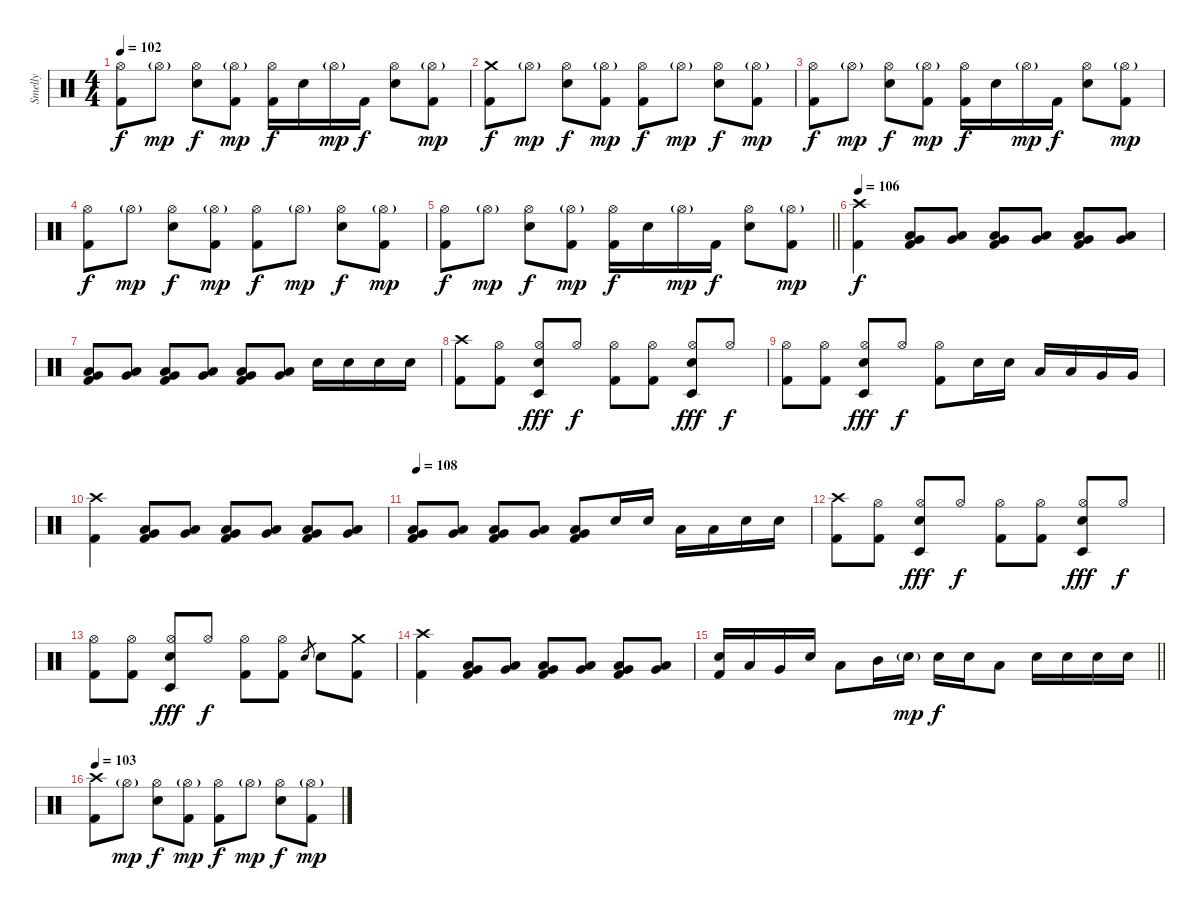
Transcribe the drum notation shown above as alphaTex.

\track ("Smelly" "Smelly") {instrument percussion}
\staff {score}
\articulation defaults
\ts (4 4)
\tempo 102
\clef neutral
\ks c
("Hi-Hat (open)" "Kick (hit) 2").8{dy f} "Hi-Hat (open)"{g}.8{dy mp} ("Hi-Hat (open)" "Electric Snare (hit)").8{dy f} ("Hi-Hat (open)"{g} "Kick (hit) 2").8{dy mp} ("Hi-Hat (open)" "Kick (hit) 2").16{dy f} "Electric Snare (hit)".16 "Hi-Hat (open)"{g}.16{dy mp} "Kick (hit) 2".16{dy f} ("Hi-Hat (open)" "Electric Snare (hit)").8 ("Hi-Hat (open)"{g} "Kick (hit) 2").8{dy mp} |
("Crash medium (hit)" "Kick (hit) 2").8{dy f} "Hi-Hat (open)"{g}.8{dy mp} ("Hi-Hat (open)" "Electric Snare (hit)").8{dy f} ("Hi-Hat (open)"{g} "Kick (hit) 2").8{dy mp} ("Hi-Hat (open)" "Kick (hit) 2").8{dy f} "Hi-Hat (open)"{g}.8{dy mp} ("Hi-Hat (open)" "Electric Snare (hit)").8{dy f} ("Hi-Hat (open)"{g} "Kick (hit) 2").8{dy mp} |
("Hi-Hat (open)" "Kick (hit) 2").8{dy f} "Hi-Hat (open)"{g}.8{dy mp} ("Hi-Hat (open)" "Electric Snare (hit)").8{dy f} ("Hi-Hat (open)"{g} "Kick (hit) 2").8{dy mp} ("Hi-Hat (open)" "Kick (hit) 2").16{dy f} "Electric Snare (hit)".16 "Hi-Hat (open)"{g}.16{dy mp} "Kick (hit) 2".16{dy f} ("Hi-Hat (open)" "Electric Snare (hit)").8 ("Hi-Hat (open)"{g} "Kick (hit) 2").8{dy mp} |
("Hi-Hat (open)" "Kick (hit) 2").8{dy f} "Hi-Hat (open)"{g}.8{dy mp} ("Hi-Hat (open)" "Electric Snare (hit)").8{dy f} ("Hi-Hat (open)"{g} "Kick (hit) 2").8{dy mp} ("Hi-Hat (open)" "Kick (hit) 2").8{dy f} "Hi-Hat (open)"{g}.8{dy mp} ("Hi-Hat (open)" "Electric Snare (hit)").8{dy f} ("Hi-Hat (open)"{g} "Kick (hit) 2").8{dy mp} |
\barLineRight lightlight
("Hi-Hat (open)" "Kick (hit) 2").8{dy f} "Hi-Hat (open)"{g}.8{dy mp} ("Hi-Hat (open)" "Electric Snare (hit)").8{dy f} ("Hi-Hat (open)"{g} "Kick (hit) 2").8{dy mp} ("Hi-Hat (open)" "Kick (hit) 2").16{dy f} "Electric Snare (hit)".16 "Hi-Hat (open)"{g}.16{dy mp} "Kick (hit) 2".16{dy f} ("Hi-Hat (open)" "Electric Snare (hit)").8 ("Hi-Hat (open)"{g} "Kick (hit) 2").8{dy mp} |
\section ("" "")
\tempo 106
("Crash high (hit)" "Kick (hit) 2").4{dy f} ("Very Low Tom (hit)" "Low Floor Tom (hit)" "Kick (hit) 2").8 ("Very Low Tom (hit)" "Low Floor Tom (hit)").8 ("Very Low Tom (hit)" "Low Floor Tom (hit)" "Kick (hit) 2").8 ("Very Low Tom (hit)" "Low Floor Tom (hit)").8 ("Very Low Tom (hit)" "Low Floor Tom (hit)" "Kick (hit) 2").8 ("Very Low Tom (hit)" "Low Floor Tom (hit)").8 |
("Very Low Tom (hit)" "Low Floor Tom (hit)" "Kick (hit) 2").8 ("Very Low Tom (hit)" "Low Floor Tom (hit)").8 ("Very Low Tom (hit)" "Low Floor Tom (hit)" "Kick (hit) 2").8 ("Very Low Tom (hit)" "Low Floor Tom (hit)").8 ("Very Low Tom (hit)" "Low Floor Tom (hit)" "Kick (hit) 2").8 ("Very Low Tom (hit)" "Low Floor Tom (hit)").8 "Electric Snare (hit)".16 "Electric Snare (hit)".16 "Electric Snare (hit)".16 "Electric Snare (hit)".16 |
("Crash high (hit)" "Kick (hit) 2").8 ("Hi-Hat (open)" "Kick (hit) 2").8 ("Hi-Hat (open)" "Electric Snare (hit)" "Timbale low (hit)").8{dy fff} "Hi-Hat (open)".8{dy f} ("Hi-Hat (open)" "Kick (hit) 2").8 ("Hi-Hat (open)" "Kick (hit) 2").8 ("Hi-Hat (open)" "Electric Snare (hit)" "Timbale low (hit)").8{dy fff} "Hi-Hat (open)".8{dy f} |
("Hi-Hat (open)" "Kick (hit) 2").8 ("Hi-Hat (open)" "Kick (hit) 2").8 ("Hi-Hat (open)" "Electric Snare (hit)" "Timbale low (hit)").8{dy fff} "Hi-Hat (open)".8{dy f} ("Hi-Hat (open)" "Kick (hit) 2").8 "Electric Snare (hit)".16 "Electric Snare (hit)".16 "Low Tom (hit)".16 "Low Tom (hit)".16 "Very Low Tom (hit)".16 "Very Low Tom (hit)".16 |
("Crash high (hit)" "Kick (hit) 2").4 ("Very Low Tom (hit)" "Low Floor Tom (hit)" "Kick (hit) 2").8 ("Very Low Tom (hit)" "Low Floor Tom (hit)").8 ("Very Low Tom (hit)" "Low Floor Tom (hit)" "Kick (hit) 2").8 ("Very Low Tom (hit)" "Low Floor Tom (hit)").8 ("Very Low Tom (hit)" "Low Floor Tom (hit)" "Kick (hit) 2").8 ("Very Low Tom (hit)" "Low Floor Tom (hit)").8 |
\tempo 108
("Very Low Tom (hit)" "Low Floor Tom (hit)" "Kick (hit) 2").8 ("Very Low Tom (hit)" "Low Floor Tom (hit)").8 ("Very Low Tom (hit)" "Low Floor Tom (hit)" "Kick (hit) 2").8 ("Very Low Tom (hit)" "Low Floor Tom (hit)").8 ("Very Low Tom (hit)" "Low Floor Tom (hit)" "Kick (hit) 2").8 "Electric Snare (hit)".16 "Electric Snare (hit)".16 "Low Tom (hit)".16 "Low Tom (hit)".16 "Electric Snare (hit)".16 "Electric Snare (hit)".16 |
("Crash high (hit)" "Kick (hit) 2").8 ("Hi-Hat (open)" "Kick (hit) 2").8 ("Hi-Hat (open)" "Electric Snare (hit)" "Timbale low (hit)").8{dy fff} "Hi-Hat (open)".8{dy f} ("Hi-Hat (open)" "Kick (hit) 2").8 ("Hi-Hat (open)" "Kick (hit) 2").8 ("Hi-Hat (open)" "Electric Snare (hit)" "Timbale low (hit)").8{dy fff} "Hi-Hat (open)".8{dy f} |
("Hi-Hat (open)" "Kick (hit) 2").8 ("Hi-Hat (open)" "Kick (hit) 2").8 ("Hi-Hat (open)" "Electric Snare (hit)" "Timbale low (hit)").8{dy fff} "Hi-Hat (open)".8{dy f} ("Hi-Hat (open)" "Kick (hit) 2").8 ("Hi-Hat (open)" "Kick (hit) 2").8 "Electric Snare (hit)".8{gr} "Electric Snare (hit)".8 ("Crash medium (hit)" "Kick (hit) 2").8 |
("Crash high (hit)" "Kick (hit) 2").4 ("Very Low Tom (hit)" "Low Floor Tom (hit)" "Kick (hit) 2").8 ("Very Low Tom (hit)" "Low Floor Tom (hit)").8 ("Very Low Tom (hit)" "Low Floor Tom (hit)" "Kick (hit) 2").8 ("Very Low Tom (hit)" "Low Floor Tom (hit)").8 ("Very Low Tom (hit)" "Low Floor Tom (hit)" "Kick (hit) 2").8 ("Very Low Tom (hit)" "Low Floor Tom (hit)").8 |
\barLineRight lightlight
("Electric Snare (hit)" "Kick (hit) 2").16 "Low Tom (hit)".16 "Very Low Tom (hit)".16 "Electric Snare (hit)".16 "Low Tom (hit)".8 "Mid Tom (hit)".16 "Electric Snare (hit)"{g}.16{dy mp} "Electric Snare (hit)".16{dy f} "Electric Snare (hit)".16 "Low Tom (hit)".8 "Electric Snare (hit)".16 "Electric Snare (hit)".16 "Electric Snare (hit)".16 "Electric Snare (hit)".16 |
\section ("" "")
\tempo 103
("Crash high (hit)" "Kick (hit) 2").8 "Hi-Hat (open)"{g}.8{dy mp} ("Hi-Hat (open)" "Electric Snare (hit)").8{dy f} ("Hi-Hat (open)"{g} "Kick (hit) 2").8{dy mp} ("Hi-Hat (open)" "Kick (hit) 2").8{dy f} "Hi-Hat (open)"{g}.8{dy mp} ("Hi-Hat (open)" "Electric Snare (hit)").8{dy f} ("Hi-Hat (open)"{g} "Kick (hit) 2").8{dy mp}
